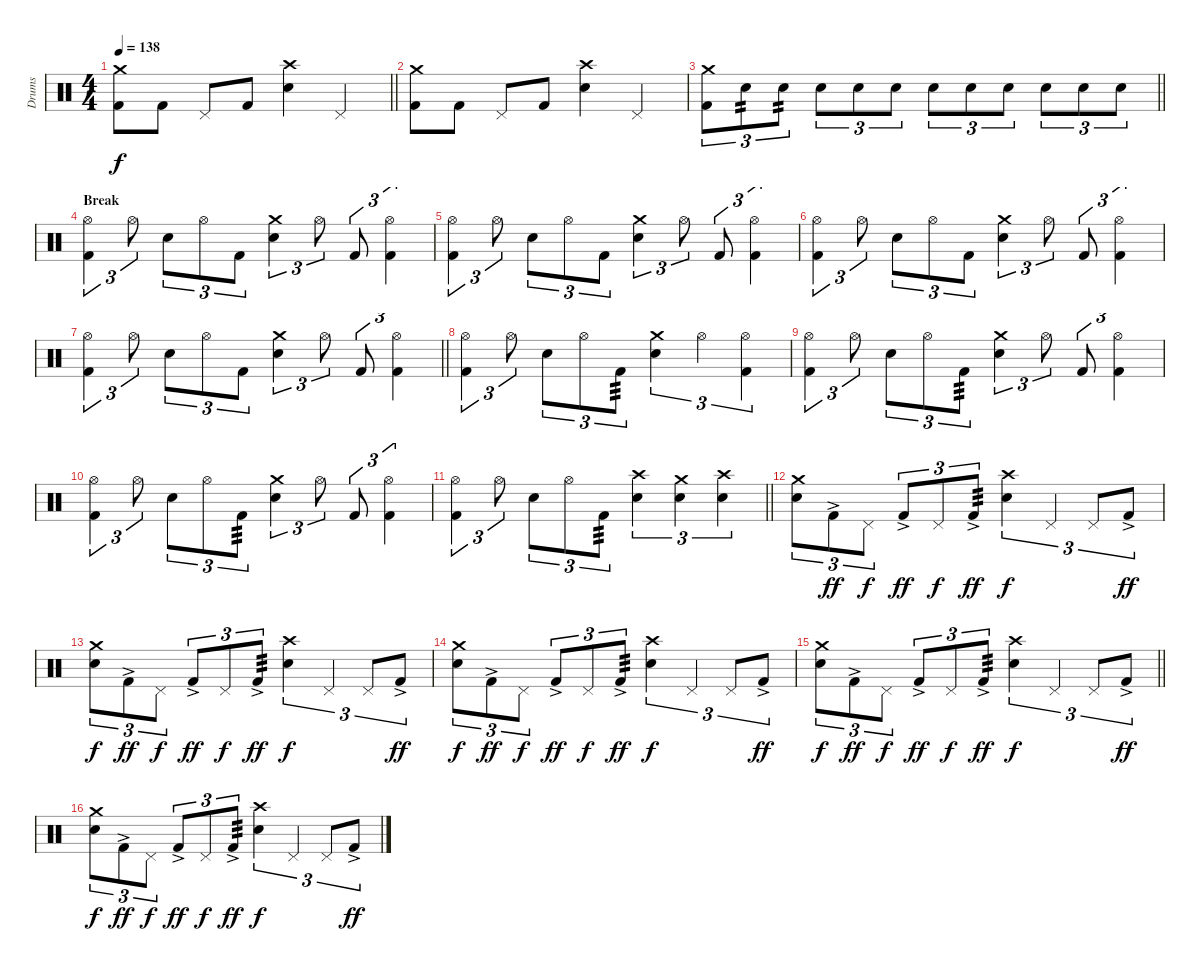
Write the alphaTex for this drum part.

\track ("Drums" "Drums") {instrument percussion}
\staff {score}
\articulation defaults
\ts (4 4)
\tempo 138
\clef neutral
\barLineRight lightlight
\ks c
("Kick (hit) 2" "Crash medium (hit)").8{dy f} "Kick (hit) 2".8 "Pedal Hi-Hat (hit)".8 "Kick (hit) 2".8 ("Snare (hit) 2" "Crash high (hit)").4 "Pedal Hi-Hat (hit)".4 |
\section ("" "")
("Kick (hit) 2" "Crash medium (hit)").8 "Kick (hit) 2".8 "Pedal Hi-Hat (hit)".8 "Kick (hit) 2".8 ("Snare (hit) 2" "Crash high (hit)").4 "Pedal Hi-Hat (hit)".4 |
\barLineRight lightlight
("Kick (hit) 2" "Crash medium (hit)").8{tu (3 2)} "Snare (hit) 2".8{tu (3 2) tp 2} "Snare (hit) 2".8{tu (3 2) tp 2} "Snare (hit) 2".8{tu (3 2)} "Snare (hit) 2".8{tu (3 2)} "Snare (hit) 2".8{tu (3 2)} "Snare (hit) 2".8{tu (3 2)} "Snare (hit) 2".8{tu (3 2)} "Snare (hit) 2".8{tu (3 2)} "Snare (hit) 2".8{tu (3 2)} "Snare (hit) 2".8{tu (3 2)} "Snare (hit) 2".8{tu (3 2)} |
\section ("" "Break")
("Kick (hit) 2" "Hi-Hat (open)").4{tu (3 2)} "Hi-Hat (open)".8{tu (3 2)} "Snare (hit) 2".8{tu (3 2)} "Hi-Hat (open)".8{tu (3 2)} "Kick (hit) 2".8{tu (3 2)} ("Snare (hit) 2" "Crash medium (hit)").4{tu (3 2)} "Hi-Hat (open)".8{tu (3 2)} "Kick (hit) 2".8{tu (3 2)} ("Kick (hit) 2" "Hi-Hat (open)").4{tu (3 2)} |
("Kick (hit) 2" "Hi-Hat (open)").4{tu (3 2)} "Hi-Hat (open)".8{tu (3 2)} "Snare (hit) 2".8{tu (3 2)} "Hi-Hat (open)".8{tu (3 2)} "Kick (hit) 2".8{tu (3 2)} ("Snare (hit) 2" "Crash medium (hit)").4{tu (3 2)} "Hi-Hat (open)".8{tu (3 2)} "Kick (hit) 2".8{tu (3 2)} ("Kick (hit) 2" "Hi-Hat (open)").4{tu (3 2)} |
("Kick (hit) 2" "Hi-Hat (open)").4{tu (3 2)} "Hi-Hat (open)".8{tu (3 2)} "Snare (hit) 2".8{tu (3 2)} "Hi-Hat (open)".8{tu (3 2)} "Kick (hit) 2".8{tu (3 2)} ("Snare (hit) 2" "Crash medium (hit)").4{tu (3 2)} "Hi-Hat (open)".8{tu (3 2)} "Kick (hit) 2".8{tu (3 2)} ("Kick (hit) 2" "Hi-Hat (open)").4{tu (3 2)} |
\barLineRight lightlight
("Kick (hit) 2" "Hi-Hat (open)").4{tu (3 2)} "Hi-Hat (open)".8{tu (3 2)} "Snare (hit) 2".8{tu (3 2)} "Hi-Hat (open)".8{tu (3 2)} "Kick (hit) 2".8{tu (3 2)} ("Snare (hit) 2" "Crash medium (hit)").4{tu (3 2)} "Hi-Hat (open)".8{tu (3 2)} "Kick (hit) 2".8{tu (3 2)} ("Kick (hit) 2" "Hi-Hat (open)").4{tu (3 2)} |
\section ("" "")
("Kick (hit) 2" "Hi-Hat (open)").4{tu (3 2)} "Hi-Hat (open)".8{tu (3 2)} "Snare (hit) 2".8{tu (3 2)} "Hi-Hat (open)".8{tu (3 2)} "Kick (hit) 2".8{tu (3 2) tp 3} ("Snare (hit) 2" "Crash medium (hit)").4{tu (3 2)} "Hi-Hat (open)".4{tu (3 2)} ("Kick (hit) 2" "Hi-Hat (open)").4{tu (3 2)} |
("Kick (hit) 2" "Hi-Hat (open)").4{tu (3 2)} "Hi-Hat (open)".8{tu (3 2)} "Snare (hit) 2".8{tu (3 2)} "Hi-Hat (open)".8{tu (3 2)} "Kick (hit) 2".8{tu (3 2) tp 3} ("Snare (hit) 2" "Crash medium (hit)").4{tu (3 2)} "Hi-Hat (open)".8{tu (3 2)} "Kick (hit) 2".8{tu (3 2)} ("Kick (hit) 2" "Hi-Hat (open)").4{tu (3 2)} |
("Kick (hit) 2" "Hi-Hat (open)").4{tu (3 2)} "Hi-Hat (open)".8{tu (3 2)} "Snare (hit) 2".8{tu (3 2)} "Hi-Hat (open)".8{tu (3 2)} "Kick (hit) 2".8{tu (3 2) tp 3} ("Snare (hit) 2" "Crash medium (hit)").4{tu (3 2)} "Hi-Hat (open)".8{tu (3 2)} "Kick (hit) 2".8{tu (3 2)} ("Kick (hit) 2" "Hi-Hat (open)").4{tu (3 2)} |
\barLineRight lightlight
("Kick (hit) 2" "Hi-Hat (open)").4{tu (3 2)} "Hi-Hat (open)".8{tu (3 2)} "Snare (hit) 2".8{tu (3 2)} "Hi-Hat (open)".8{tu (3 2)} "Kick (hit) 2".8{tu (3 2) tp 3} ("Snare (hit) 2" "Crash high (hit)").4{tu (3 2)} ("Snare (hit) 2" "Crash medium (hit)").4{tu (3 2)} ("Snare (hit) 2" "Crash high (hit)").4{tu (3 2)} |
\section ("" "")
("Snare (hit) 2" "Crash medium (hit)").8{tu (3 2)} "Kick (hit) 2"{ac}.8{tu (3 2) dy ff} "Pedal Hi-Hat (hit)".8{tu (3 2) dy f} "Kick (hit) 2"{ac}.8{tu (3 2) dy ff} "Pedal Hi-Hat (hit)".8{tu (3 2) dy f} "Kick (hit) 2"{ac}.8{tu (3 2) tp 3 dy ff} ("Snare (hit) 2" "Crash high (hit)").4{tu (3 2) dy f} "Pedal Hi-Hat (hit)".4{tu (3 2)} "Pedal Hi-Hat (hit)".8{tu (3 2)} "Kick (hit) 2"{ac}.8{tu (3 2) dy ff} |
("Snare (hit) 2" "Crash medium (hit)").8{tu (3 2) dy f} "Kick (hit) 2"{ac}.8{tu (3 2) dy ff} "Pedal Hi-Hat (hit)".8{tu (3 2) dy f} "Kick (hit) 2"{ac}.8{tu (3 2) dy ff} "Pedal Hi-Hat (hit)".8{tu (3 2) dy f} "Kick (hit) 2"{ac}.8{tu (3 2) tp 3 dy ff} ("Snare (hit) 2" "Crash high (hit)").4{tu (3 2) dy f} "Pedal Hi-Hat (hit)".4{tu (3 2)} "Pedal Hi-Hat (hit)".8{tu (3 2)} "Kick (hit) 2"{ac}.8{tu (3 2) dy ff} |
("Snare (hit) 2" "Crash medium (hit)").8{tu (3 2) dy f} "Kick (hit) 2"{ac}.8{tu (3 2) dy ff} "Pedal Hi-Hat (hit)".8{tu (3 2) dy f} "Kick (hit) 2"{ac}.8{tu (3 2) dy ff} "Pedal Hi-Hat (hit)".8{tu (3 2) dy f} "Kick (hit) 2"{ac}.8{tu (3 2) tp 3 dy ff} ("Snare (hit) 2" "Crash high (hit)").4{tu (3 2) dy f} "Pedal Hi-Hat (hit)".4{tu (3 2)} "Pedal Hi-Hat (hit)".8{tu (3 2)} "Kick (hit) 2"{ac}.8{tu (3 2) dy ff} |
\barLineRight lightlight
("Snare (hit) 2" "Crash medium (hit)").8{tu (3 2) dy f} "Kick (hit) 2"{ac}.8{tu (3 2) dy ff} "Pedal Hi-Hat (hit)".8{tu (3 2) dy f} "Kick (hit) 2"{ac}.8{tu (3 2) dy ff} "Pedal Hi-Hat (hit)".8{tu (3 2) dy f} "Kick (hit) 2"{ac}.8{tu (3 2) tp 3 dy ff} ("Snare (hit) 2" "Crash high (hit)").4{tu (3 2) dy f} "Pedal Hi-Hat (hit)".4{tu (3 2)} "Pedal Hi-Hat (hit)".8{tu (3 2)} "Kick (hit) 2"{ac}.8{tu (3 2) dy ff} |
\section ("" "")
("Snare (hit) 2" "Crash medium (hit)").8{tu (3 2) dy f} "Kick (hit) 2"{ac}.8{tu (3 2) dy ff} "Pedal Hi-Hat (hit)".8{tu (3 2) dy f} "Kick (hit) 2"{ac}.8{tu (3 2) dy ff} "Pedal Hi-Hat (hit)".8{tu (3 2) dy f} "Kick (hit) 2"{ac}.8{tu (3 2) tp 3 dy ff} ("Snare (hit) 2" "Crash high (hit)").4{tu (3 2) dy f} "Pedal Hi-Hat (hit)".4{tu (3 2)} "Pedal Hi-Hat (hit)".8{tu (3 2)} "Kick (hit) 2"{ac}.8{tu (3 2) dy ff}
